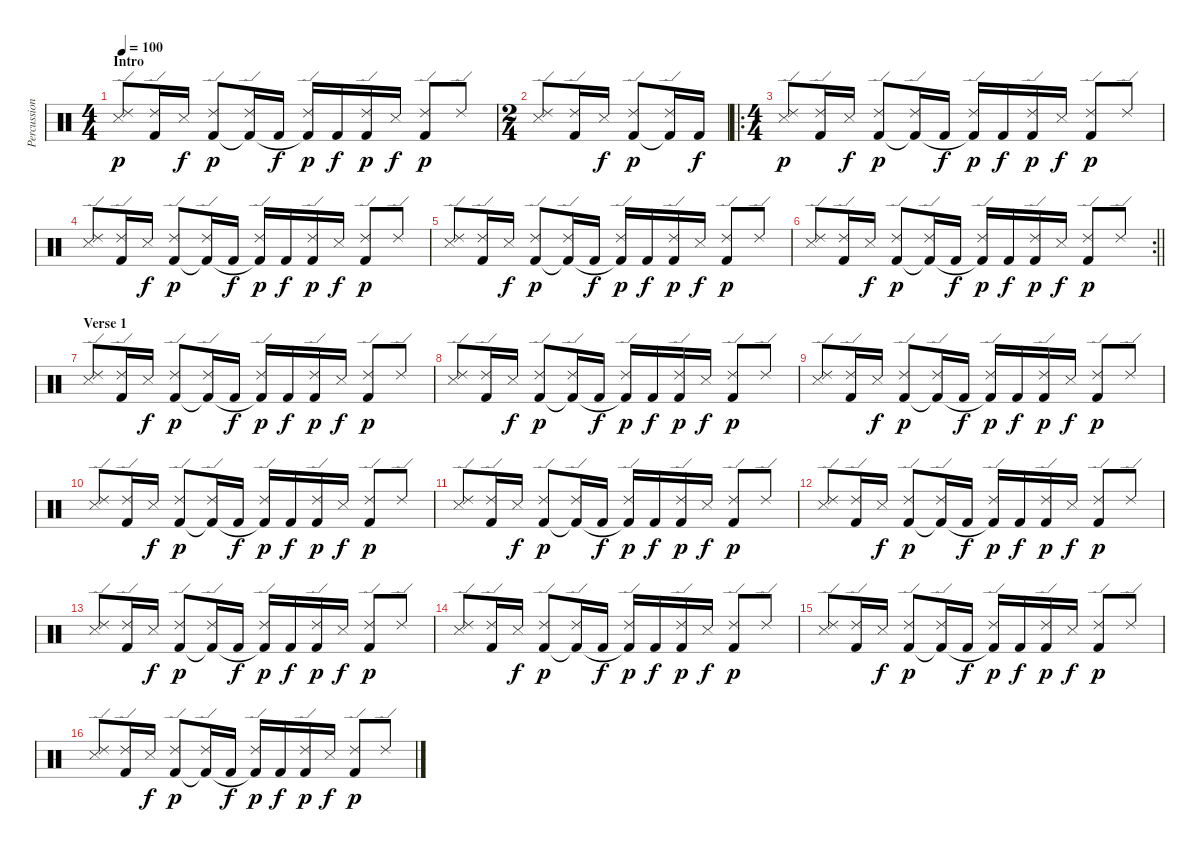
\track ("Percussion" "Percussion") {instrument percussion}
\staff {score}
\articulation defaults
\ts (4 4)
\section ("" "Intro")
\tempo 100
\clef neutral
\ks c
("Ride (edge) 2" "Snare (side stick) 3").8{dy p} ("Ride (edge) 2" "Kick (hit) 2").16 "Snare (side stick) 3".16{dy f} ("Ride (edge) 2" "Kick (hit) 2").8{dy p} ("Ride (edge) 2" "Kick (hit) 2"{t}).16 "Kick (hit) 2".16{dy f} ("Ride (edge) 2" "Kick (hit) 2"{t}).16{dy p} "Kick (hit) 2".16{dy f} ("Ride (edge) 2" "Kick (hit) 2").16{dy p} "Snare (side stick) 3".16{dy f} ("Ride (edge) 2" "Kick (hit) 2").8{dy p} "Ride (edge) 2".8 |
\ts (2 4)
("Ride (edge) 2" "Snare (side stick) 3").8 ("Ride (edge) 2" "Kick (hit) 2").16 "Snare (side stick) 3".16{dy f} ("Ride (edge) 2" "Kick (hit) 2").8{dy p} ("Ride (edge) 2" "Kick (hit) 2"{t}).16 "Kick (hit) 2".16{dy f} |
\ro
\ts (4 4)
("Ride (edge) 2" "Snare (side stick) 3").8{dy p} ("Ride (edge) 2" "Kick (hit) 2").16 "Snare (side stick) 3".16{dy f} ("Ride (edge) 2" "Kick (hit) 2").8{dy p} ("Ride (edge) 2" "Kick (hit) 2"{t}).16 "Kick (hit) 2".16{dy f} ("Ride (edge) 2" "Kick (hit) 2"{t}).16{dy p} "Kick (hit) 2".16{dy f} ("Ride (edge) 2" "Kick (hit) 2").16{dy p} "Snare (side stick) 3".16{dy f} ("Ride (edge) 2" "Kick (hit) 2").8{dy p} "Ride (edge) 2".8 |
("Ride (edge) 2" "Snare (side stick) 3").8 ("Ride (edge) 2" "Kick (hit) 2").16 "Snare (side stick) 3".16{dy f} ("Ride (edge) 2" "Kick (hit) 2").8{dy p} ("Ride (edge) 2" "Kick (hit) 2"{t}).16 "Kick (hit) 2".16{dy f} ("Ride (edge) 2" "Kick (hit) 2"{t}).16{dy p} "Kick (hit) 2".16{dy f} ("Ride (edge) 2" "Kick (hit) 2").16{dy p} "Snare (side stick) 3".16{dy f} ("Ride (edge) 2" "Kick (hit) 2").8{dy p} "Ride (edge) 2".8 |
("Ride (edge) 2" "Snare (side stick) 3").8 ("Ride (edge) 2" "Kick (hit) 2").16 "Snare (side stick) 3".16{dy f} ("Ride (edge) 2" "Kick (hit) 2").8{dy p} ("Ride (edge) 2" "Kick (hit) 2"{t}).16 "Kick (hit) 2".16{dy f} ("Ride (edge) 2" "Kick (hit) 2"{t}).16{dy p} "Kick (hit) 2".16{dy f} ("Ride (edge) 2" "Kick (hit) 2").16{dy p} "Snare (side stick) 3".16{dy f} ("Ride (edge) 2" "Kick (hit) 2").8{dy p} "Ride (edge) 2".8 |
\rc 2
\barLineRight lightlight
("Ride (edge) 2" "Snare (side stick) 3").8 ("Ride (edge) 2" "Kick (hit) 2").16 "Snare (side stick) 3".16{dy f} ("Ride (edge) 2" "Kick (hit) 2").8{dy p} ("Ride (edge) 2" "Kick (hit) 2"{t}).16 "Kick (hit) 2".16{dy f} ("Ride (edge) 2" "Kick (hit) 2"{t}).16{dy p} "Kick (hit) 2".16{dy f} ("Ride (edge) 2" "Kick (hit) 2").16{dy p} "Snare (side stick) 3".16{dy f} ("Ride (edge) 2" "Kick (hit) 2").8{dy p} "Ride (edge) 2".8 |
\section ("" "Verse 1")
("Ride (edge) 2" "Snare (side stick) 3").8 ("Ride (edge) 2" "Kick (hit) 2").16 "Snare (side stick) 3".16{dy f} ("Ride (edge) 2" "Kick (hit) 2").8{dy p} ("Ride (edge) 2" "Kick (hit) 2"{t}).16 "Kick (hit) 2".16{dy f} ("Ride (edge) 2" "Kick (hit) 2"{t}).16{dy p} "Kick (hit) 2".16{dy f} ("Ride (edge) 2" "Kick (hit) 2").16{dy p} "Snare (side stick) 3".16{dy f} ("Ride (edge) 2" "Kick (hit) 2").8{dy p} "Ride (edge) 2".8 |
("Ride (edge) 2" "Snare (side stick) 3").8 ("Ride (edge) 2" "Kick (hit) 2").16 "Snare (side stick) 3".16{dy f} ("Ride (edge) 2" "Kick (hit) 2").8{dy p} ("Ride (edge) 2" "Kick (hit) 2"{t}).16 "Kick (hit) 2".16{dy f} ("Ride (edge) 2" "Kick (hit) 2"{t}).16{dy p} "Kick (hit) 2".16{dy f} ("Ride (edge) 2" "Kick (hit) 2").16{dy p} "Snare (side stick) 3".16{dy f} ("Ride (edge) 2" "Kick (hit) 2").8{dy p} "Ride (edge) 2".8 |
("Ride (edge) 2" "Snare (side stick) 3").8 ("Ride (edge) 2" "Kick (hit) 2").16 "Snare (side stick) 3".16{dy f} ("Ride (edge) 2" "Kick (hit) 2").8{dy p} ("Ride (edge) 2" "Kick (hit) 2"{t}).16 "Kick (hit) 2".16{dy f} ("Ride (edge) 2" "Kick (hit) 2"{t}).16{dy p} "Kick (hit) 2".16{dy f} ("Ride (edge) 2" "Kick (hit) 2").16{dy p} "Snare (side stick) 3".16{dy f} ("Ride (edge) 2" "Kick (hit) 2").8{dy p} "Ride (edge) 2".8 |
("Ride (edge) 2" "Snare (side stick) 3").8 ("Ride (edge) 2" "Kick (hit) 2").16 "Snare (side stick) 3".16{dy f} ("Ride (edge) 2" "Kick (hit) 2").8{dy p} ("Ride (edge) 2" "Kick (hit) 2"{t}).16 "Kick (hit) 2".16{dy f} ("Ride (edge) 2" "Kick (hit) 2"{t}).16{dy p} "Kick (hit) 2".16{dy f} ("Ride (edge) 2" "Kick (hit) 2").16{dy p} "Snare (side stick) 3".16{dy f} ("Ride (edge) 2" "Kick (hit) 2").8{dy p} "Ride (edge) 2".8 |
("Ride (edge) 2" "Snare (side stick) 3").8 ("Ride (edge) 2" "Kick (hit) 2").16 "Snare (side stick) 3".16{dy f} ("Ride (edge) 2" "Kick (hit) 2").8{dy p} ("Ride (edge) 2" "Kick (hit) 2"{t}).16 "Kick (hit) 2".16{dy f} ("Ride (edge) 2" "Kick (hit) 2"{t}).16{dy p} "Kick (hit) 2".16{dy f} ("Ride (edge) 2" "Kick (hit) 2").16{dy p} "Snare (side stick) 3".16{dy f} ("Ride (edge) 2" "Kick (hit) 2").8{dy p} "Ride (edge) 2".8 |
("Ride (edge) 2" "Snare (side stick) 3").8 ("Ride (edge) 2" "Kick (hit) 2").16 "Snare (side stick) 3".16{dy f} ("Ride (edge) 2" "Kick (hit) 2").8{dy p} ("Ride (edge) 2" "Kick (hit) 2"{t}).16 "Kick (hit) 2".16{dy f} ("Ride (edge) 2" "Kick (hit) 2"{t}).16{dy p} "Kick (hit) 2".16{dy f} ("Ride (edge) 2" "Kick (hit) 2").16{dy p} "Snare (side stick) 3".16{dy f} ("Ride (edge) 2" "Kick (hit) 2").8{dy p} "Ride (edge) 2".8 |
("Ride (edge) 2" "Snare (side stick) 3").8 ("Ride (edge) 2" "Kick (hit) 2").16 "Snare (side stick) 3".16{dy f} ("Ride (edge) 2" "Kick (hit) 2").8{dy p} ("Ride (edge) 2" "Kick (hit) 2"{t}).16 "Kick (hit) 2".16{dy f} ("Ride (edge) 2" "Kick (hit) 2"{t}).16{dy p} "Kick (hit) 2".16{dy f} ("Ride (edge) 2" "Kick (hit) 2").16{dy p} "Snare (side stick) 3".16{dy f} ("Ride (edge) 2" "Kick (hit) 2").8{dy p} "Ride (edge) 2".8 |
("Ride (edge) 2" "Snare (side stick) 3").8 ("Ride (edge) 2" "Kick (hit) 2").16 "Snare (side stick) 3".16{dy f} ("Ride (edge) 2" "Kick (hit) 2").8{dy p} ("Ride (edge) 2" "Kick (hit) 2"{t}).16 "Kick (hit) 2".16{dy f} ("Ride (edge) 2" "Kick (hit) 2"{t}).16{dy p} "Kick (hit) 2".16{dy f} ("Ride (edge) 2" "Kick (hit) 2").16{dy p} "Snare (side stick) 3".16{dy f} ("Ride (edge) 2" "Kick (hit) 2").8{dy p} "Ride (edge) 2".8 |
("Ride (edge) 2" "Snare (side stick) 3").8 ("Ride (edge) 2" "Kick (hit) 2").16 "Snare (side stick) 3".16{dy f} ("Ride (edge) 2" "Kick (hit) 2").8{dy p} ("Ride (edge) 2" "Kick (hit) 2"{t}).16 "Kick (hit) 2".16{dy f} ("Ride (edge) 2" "Kick (hit) 2"{t}).16{dy p} "Kick (hit) 2".16{dy f} ("Ride (edge) 2" "Kick (hit) 2").16{dy p} "Snare (side stick) 3".16{dy f} ("Ride (edge) 2" "Kick (hit) 2").8{dy p} "Ride (edge) 2".8 |
("Ride (edge) 2" "Snare (side stick) 3").8 ("Ride (edge) 2" "Kick (hit) 2").16 "Snare (side stick) 3".16{dy f} ("Ride (edge) 2" "Kick (hit) 2").8{dy p} ("Ride (edge) 2" "Kick (hit) 2"{t}).16 "Kick (hit) 2".16{dy f} ("Ride (edge) 2" "Kick (hit) 2"{t}).16{dy p} "Kick (hit) 2".16{dy f} ("Ride (edge) 2" "Kick (hit) 2").16{dy p} "Snare (side stick) 3".16{dy f} ("Ride (edge) 2" "Kick (hit) 2").8{dy p} "Ride (edge) 2".8
